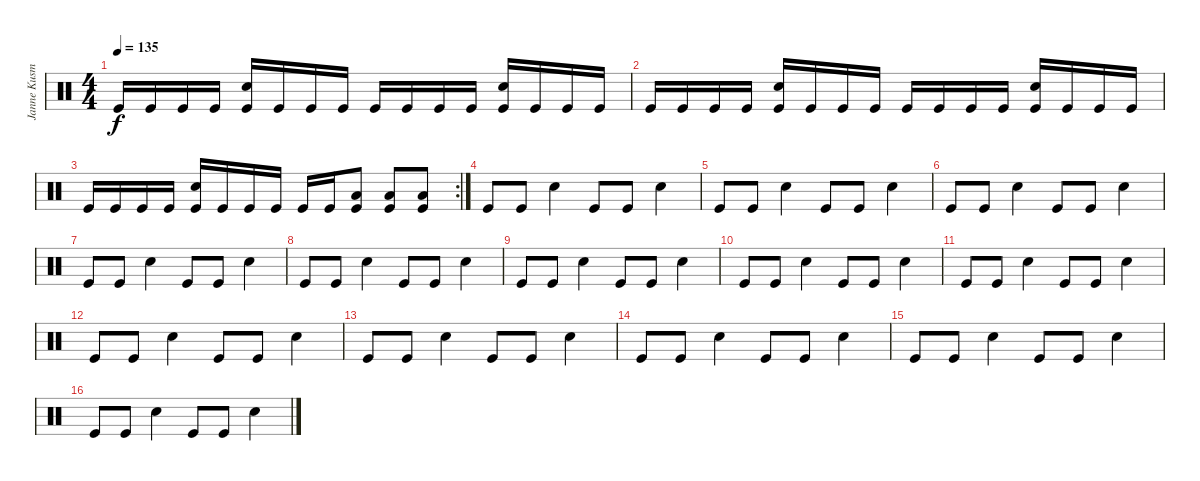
\track ("Janne Kusmin" "Janne Kusm") {instrument percussion}
\staff {score}
\articulation defaults
\ts (4 4)
\tempo 135
\clef neutral
\ks c "Kick (hit)".16{dy f} "Kick (hit)".16 "Kick (hit)".16 "Kick (hit)".16
("Snare (hit) 2" "Kick (hit)").16 "Kick (hit)".16 "Kick (hit)".16 "Kick (hit)".16 "Kick (hit)".16 "Kick (hit)".16 "Kick (hit)".16 "Kick (hit)".16 ("Snare (hit) 2" "Kick (hit)").16 "Kick (hit)".16 "Kick (hit)".16 "Kick (hit)".16 |
"Kick (hit)".16 "Kick (hit)".16 "Kick (hit)".16 "Kick (hit)".16 ("Snare (hit) 2" "Kick (hit)").16 "Kick (hit)".16 "Kick (hit)".16 "Kick (hit)".16 "Kick (hit)".16 "Kick (hit)".16 "Kick (hit)".16 "Kick (hit)".16 ("Snare (hit) 2" "Kick (hit)").16 "Kick (hit)".16 "Kick (hit)".16 "Kick (hit)".16 |
\rc 2 "Kick (hit)".16 "Kick (hit)".16 "Kick (hit)".16 "Kick (hit)".16
("Snare (hit) 2" "Kick (hit)").16 "Kick (hit)".16 "Kick (hit)".16 "Kick (hit)".16 "Kick (hit)".16 "Kick (hit)".16 ("Low Tom (hit)" "Kick (hit)").8 ("Low Tom (hit)" "Kick (hit)").8 ("Low Tom (hit)" "Kick (hit)").8 |
"Kick (hit)".8 "Kick (hit)".8 "Snare (hit) 2".4 "Kick (hit)".8 "Kick (hit)".8 "Snare (hit) 2".4 |
"Kick (hit)".8 "Kick (hit)".8 "Snare (hit) 2".4 "Kick (hit)".8 "Kick (hit)".8 "Snare (hit) 2".4 |
"Kick (hit)".8 "Kick (hit)".8 "Snare (hit) 2".4 "Kick (hit)".8 "Kick (hit)".8 "Snare (hit) 2".4 |
"Kick (hit)".8 "Kick (hit)".8 "Snare (hit) 2".4 "Kick (hit)".8 "Kick (hit)".8 "Snare (hit) 2".4 |
"Kick (hit)".8 "Kick (hit)".8 "Snare (hit) 2".4 "Kick (hit)".8 "Kick (hit)".8 "Snare (hit) 2".4 |
"Kick (hit)".8 "Kick (hit)".8 "Snare (hit) 2".4 "Kick (hit)".8 "Kick (hit)".8 "Snare (hit) 2".4 |
"Kick (hit)".8 "Kick (hit)".8 "Snare (hit) 2".4 "Kick (hit)".8 "Kick (hit)".8 "Snare (hit) 2".4 |
"Kick (hit)".8 "Kick (hit)".8 "Snare (hit) 2".4 "Kick (hit)".8 "Kick (hit)".8 "Snare (hit) 2".4 |
"Kick (hit)".8 "Kick (hit)".8 "Snare (hit) 2".4 "Kick (hit)".8 "Kick (hit)".8 "Snare (hit) 2".4 |
"Kick (hit)".8 "Kick (hit)".8 "Snare (hit) 2".4 "Kick (hit)".8 "Kick (hit)".8 "Snare (hit) 2".4 |
"Kick (hit)".8 "Kick (hit)".8 "Snare (hit) 2".4 "Kick (hit)".8 "Kick (hit)".8 "Snare (hit) 2".4 |
"Kick (hit)".8 "Kick (hit)".8 "Snare (hit) 2".4 "Kick (hit)".8 "Kick (hit)".8 "Snare (hit) 2".4 |
"Kick (hit)".8 "Kick (hit)".8 "Snare (hit) 2".4 "Kick (hit)".8 "Kick (hit)".8 "Snare (hit) 2".4
